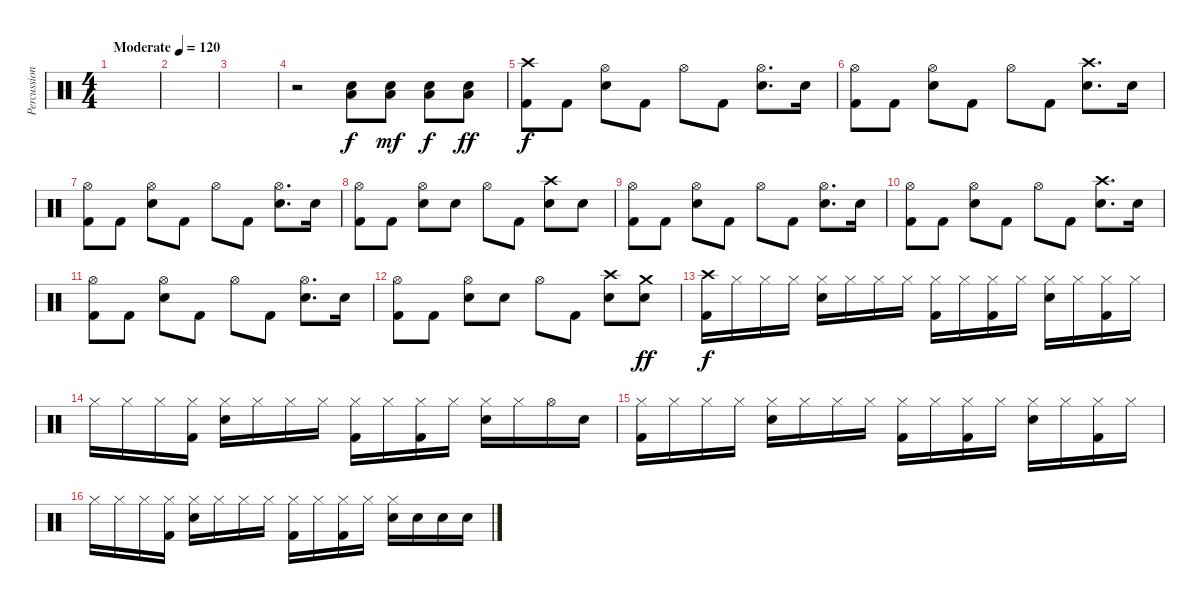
\track ("Percussion" "Percussion") {instrument percussion}
\staff {score}
\articulation defaults
\ts (4 4)
\tempo (120 "Moderate")
\clef neutral
\ks c
|
|
|
r.2 ("Electric Snare (hit)" "Low Tom (hit)").8 ("Electric Snare (hit)" "Low Tom (hit)").8{dy mf} ("Electric Snare (hit)" "Low Tom (hit)").8{dy f} ("Electric Snare (hit)" "Low Tom (hit)").8{dy ff} |
("Crash high (hit)" "Kick (hit) 2").8{dy f} "Kick (hit) 2".8 ("Hi-Hat (open)" "Electric Snare (hit)").8 "Kick (hit) 2".8 "Hi-Hat (open)".8 "Kick (hit) 2".8 ("Hi-Hat (open)" "Electric Snare (hit)").8{d} "Electric Snare (hit)".16 |
("Hi-Hat (open)" "Kick (hit) 2").8 "Kick (hit) 2".8 ("Hi-Hat (open)" "Electric Snare (hit)").8 "Kick (hit) 2".8 "Hi-Hat (open)".8 "Kick (hit) 2".8 ("Crash high (hit)" "Electric Snare (hit)").8{d} "Electric Snare (hit)".16 |
("Hi-Hat (open)" "Kick (hit) 2").8 "Kick (hit) 2".8 ("Hi-Hat (open)" "Electric Snare (hit)").8 "Kick (hit) 2".8 "Hi-Hat (open)".8 "Kick (hit) 2".8 ("Hi-Hat (open)" "Electric Snare (hit)").8{d} "Electric Snare (hit)".16 |
("Hi-Hat (open)" "Kick (hit) 2").8 "Kick (hit) 2".8 ("Hi-Hat (open)" "Electric Snare (hit)").8 "Electric Snare (hit)".8 "Hi-Hat (open)".8 "Kick (hit) 2".8 ("Crash high (hit)" "Electric Snare (hit)").8 "Electric Snare (hit)".8 |
("Hi-Hat (open)" "Kick (hit) 2").8 "Kick (hit) 2".8 ("Hi-Hat (open)" "Electric Snare (hit)").8 "Kick (hit) 2".8 "Hi-Hat (open)".8 "Kick (hit) 2".8 ("Hi-Hat (open)" "Electric Snare (hit)").8{d} "Electric Snare (hit)".16 |
("Hi-Hat (open)" "Kick (hit) 2").8 "Kick (hit) 2".8 ("Hi-Hat (open)" "Electric Snare (hit)").8 "Kick (hit) 2".8 "Hi-Hat (open)".8 "Kick (hit) 2".8 ("Crash high (hit)" "Electric Snare (hit)").8{d} "Electric Snare (hit)".16 |
("Hi-Hat (open)" "Kick (hit) 2").8 "Kick (hit) 2".8 ("Hi-Hat (open)" "Electric Snare (hit)").8 "Kick (hit) 2".8 "Hi-Hat (open)".8 "Kick (hit) 2".8 ("Hi-Hat (open)" "Electric Snare (hit)").8{d} "Electric Snare (hit)".16 |
("Hi-Hat (open)" "Kick (hit) 2").8 "Kick (hit) 2".8 ("Hi-Hat (open)" "Electric Snare (hit)").8 "Electric Snare (hit)".8 "Hi-Hat (open)".8 "Kick (hit) 2".8 ("Crash high (hit)" "Electric Snare (hit)").8 ("Crash medium (hit)" "Electric Snare (hit)").8{dy ff} |
("Crash high (hit)" "Kick (hit) 2").16{dy f} "Hi-Hat (closed)".16 "Hi-Hat (closed)".16 "Hi-Hat (closed)".16 ("Hi-Hat (closed)" "Electric Snare (hit)").16 "Hi-Hat (closed)".16 "Hi-Hat (closed)".16 "Hi-Hat (closed)".16 ("Hi-Hat (closed)" "Kick (hit) 2").16 "Hi-Hat (closed)".16 ("Hi-Hat (closed)" "Kick (hit) 2").16 "Hi-Hat (closed)".16 ("Hi-Hat (closed)" "Electric Snare (hit)").16 "Hi-Hat (closed)".16 ("Hi-Hat (closed)" "Kick (hit) 2").16 "Hi-Hat (closed)".16 |
"Hi-Hat (closed)".16 "Hi-Hat (closed)".16 "Hi-Hat (closed)".16 ("Hi-Hat (closed)" "Kick (hit) 2").16 ("Hi-Hat (closed)" "Electric Snare (hit)").16 "Hi-Hat (closed)".16 "Hi-Hat (closed)".16 "Hi-Hat (closed)".16 ("Hi-Hat (closed)" "Kick (hit) 2").16 "Hi-Hat (closed)".16 ("Hi-Hat (closed)" "Kick (hit) 2").16 "Hi-Hat (closed)".16 ("Hi-Hat (closed)" "Electric Snare (hit)").16 "Hi-Hat (closed)".16 "Hi-Hat (open)".16 "Electric Snare (hit)".16 |
("Hi-Hat (closed)" "Kick (hit) 2").16 "Hi-Hat (closed)".16 "Hi-Hat (closed)".16 "Hi-Hat (closed)".16 ("Hi-Hat (closed)" "Electric Snare (hit)").16 "Hi-Hat (closed)".16 "Hi-Hat (closed)".16 "Hi-Hat (closed)".16 ("Hi-Hat (closed)" "Kick (hit) 2").16 "Hi-Hat (closed)".16 ("Hi-Hat (closed)" "Kick (hit) 2").16 "Hi-Hat (closed)".16 ("Hi-Hat (closed)" "Electric Snare (hit)").16 "Hi-Hat (closed)".16 ("Hi-Hat (closed)" "Kick (hit) 2").16 "Hi-Hat (closed)".16 |
"Hi-Hat (closed)".16 "Hi-Hat (closed)".16 "Hi-Hat (closed)".16 ("Hi-Hat (closed)" "Kick (hit) 2").16 ("Hi-Hat (closed)" "Electric Snare (hit)").16 "Hi-Hat (closed)".16 "Hi-Hat (closed)".16 "Hi-Hat (closed)".16 ("Hi-Hat (closed)" "Kick (hit) 2").16 "Hi-Hat (closed)".16 ("Hi-Hat (closed)" "Kick (hit) 2").16 "Hi-Hat (closed)".16 ("Hi-Hat (closed)" "Electric Snare (hit)").16 "Electric Snare (hit)".16 "Electric Snare (hit)".16 "Electric Snare (hit)".16
